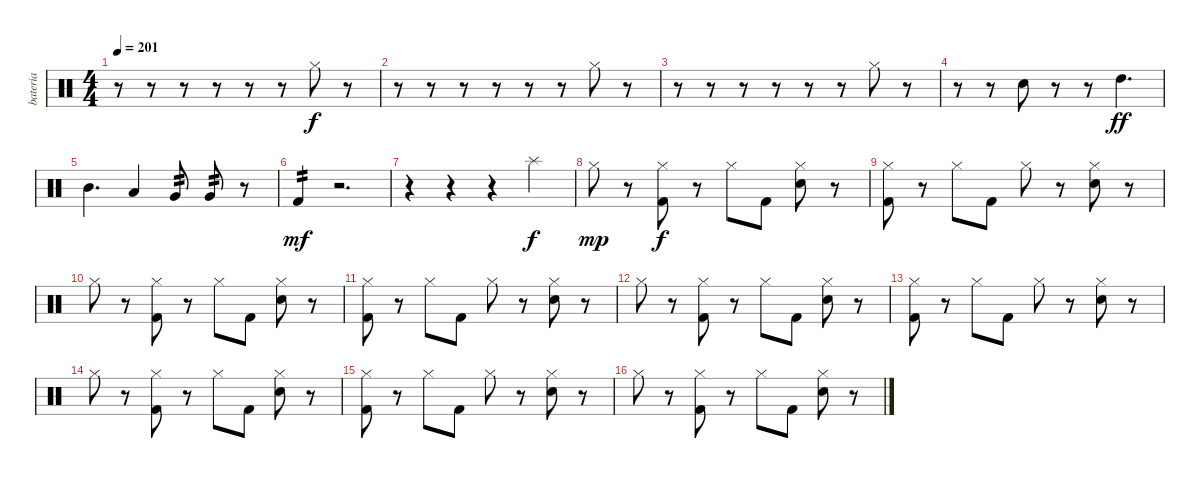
\track ("bateria" "bateria") {solo instrument percussion}
\staff {score}
\articulation defaults
\ts (4 4)
\tempo 201
\clef neutral
\ks c
r.8{dy f} r.8 r.8 r.8 r.8 r.8 "Hi-Hat (closed)".8 r.8 |
r.8 r.8 r.8 r.8 r.8 r.8 "Hi-Hat (closed)".8 r.8 |
r.8 r.8 r.8 r.8 r.8 r.8 "Hi-Hat (closed)".8 r.8 |
r.8 r.8 "Snare (hit) 2".8 r.8 r.8 "High Tom (hit)".4{d dy ff} |
"Mid Tom (hit)".4{d} "Low Tom (hit)".4 "Very Low Tom (hit)".8{tp 2} "Very Low Tom (hit)".8{tp 2} r.8 |
"Kick (hit) 2".4{tp 2 dy mf} r.2{d} |
r.4 r.4 r.4 "Splash (hit)".4{dy f} |
"Hi-Hat (closed)".8{dy mp} r.8 ("Hi-Hat (closed)" "Kick (hit) 2").8{dy f} r.8 "Hi-Hat (closed)".8 "Kick (hit) 2".8 ("Hi-Hat (closed)" "Electric Snare (hit)").8 r.8 |
("Hi-Hat (closed)" "Kick (hit) 2").8 r.8 "Hi-Hat (closed)".8 "Kick (hit) 2".8 "Hi-Hat (closed)".8 r.8 ("Hi-Hat (closed)" "Electric Snare (hit)").8 r.8 |
"Hi-Hat (closed)".8 r.8 ("Hi-Hat (closed)" "Kick (hit) 2").8 r.8 "Hi-Hat (closed)".8 "Kick (hit) 2".8 ("Hi-Hat (closed)" "Electric Snare (hit)").8 r.8 |
("Hi-Hat (closed)" "Kick (hit) 2").8 r.8 "Hi-Hat (closed)".8 "Kick (hit) 2".8 "Hi-Hat (closed)".8 r.8 ("Hi-Hat (closed)" "Electric Snare (hit)").8 r.8 |
"Hi-Hat (closed)".8 r.8 ("Hi-Hat (closed)" "Kick (hit) 2").8 r.8 "Hi-Hat (closed)".8 "Kick (hit) 2".8 ("Hi-Hat (closed)" "Electric Snare (hit)").8 r.8 |
("Hi-Hat (closed)" "Kick (hit) 2").8 r.8 "Hi-Hat (closed)".8 "Kick (hit) 2".8 "Hi-Hat (closed)".8 r.8 ("Hi-Hat (closed)" "Electric Snare (hit)").8 r.8 |
"Hi-Hat (closed)".8 r.8 ("Hi-Hat (closed)" "Kick (hit) 2").8 r.8 "Hi-Hat (closed)".8 "Kick (hit) 2".8 ("Hi-Hat (closed)" "Electric Snare (hit)").8 r.8 |
("Hi-Hat (closed)" "Kick (hit) 2").8 r.8 "Hi-Hat (closed)".8 "Kick (hit) 2".8 "Hi-Hat (closed)".8 r.8 ("Hi-Hat (closed)" "Electric Snare (hit)").8 r.8 |
"Hi-Hat (closed)".8 r.8 ("Hi-Hat (closed)" "Kick (hit) 2").8 r.8 "Hi-Hat (closed)".8 "Kick (hit) 2".8 ("Hi-Hat (closed)" "Electric Snare (hit)").8 r.8
